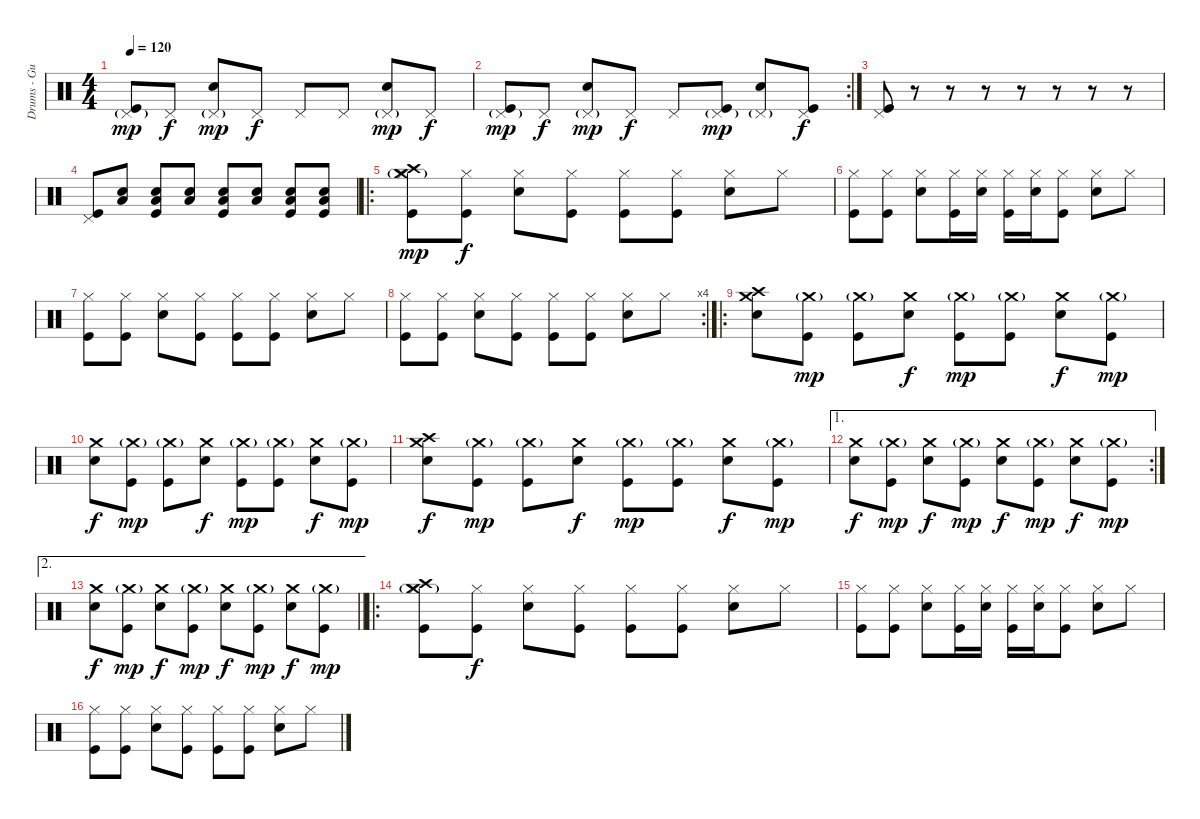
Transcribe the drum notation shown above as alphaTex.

\track ("Drums - Gustav" "Drums - Gu") {instrument percussion}
\staff {score}
\articulation defaults
\ts (4 4)
\tempo 120
\clef neutral
\ks c
("Kick (hit)" "Pedal Hi-Hat (hit)"{g}).8{dy mp} "Pedal Hi-Hat (hit)".8{dy f} ("Pedal Hi-Hat (hit)"{g} "Snare (hit) 2").8{dy mp} "Pedal Hi-Hat (hit)".8{dy f} "Pedal Hi-Hat (hit)".8 "Pedal Hi-Hat (hit)".8 ("Pedal Hi-Hat (hit)"{g} "Snare (hit) 2").8{dy mp} "Pedal Hi-Hat (hit)".8{dy f} |
\rc 2
("Kick (hit)" "Pedal Hi-Hat (hit)"{g}).8{dy mp} "Pedal Hi-Hat (hit)".8{dy f} ("Pedal Hi-Hat (hit)"{g} "Snare (hit) 2").8{dy mp} "Pedal Hi-Hat (hit)".8{dy f} "Pedal Hi-Hat (hit)".8 ("Kick (hit)" "Pedal Hi-Hat (hit)"{g}).8{dy mp} ("Pedal Hi-Hat (hit)"{g} "Snare (hit) 2").8 ("Kick (hit)" "Pedal Hi-Hat (hit)").8{dy f} |
("Kick (hit)" "Pedal Hi-Hat (hit)").8 r.8 r.8 r.8 r.8 r.8 r.8 r.8 |
("Kick (hit)" "Pedal Hi-Hat (hit)").8{volume 16} ("Snare (hit) 2" "Low Floor Tom (hit)").8 ("Kick (hit)" "Snare (hit) 2" "Low Floor Tom (hit)").8 ("Snare (hit) 2" "Low Floor Tom (hit)").8 ("Kick (hit)" "Snare (hit) 2" "Low Floor Tom (hit)").8 ("Snare (hit) 2" "Low Floor Tom (hit)").8 ("Kick (hit)" "Snare (hit) 2" "Low Floor Tom (hit)").8 ("Kick (hit)" "Snare (hit) 2" "Low Floor Tom (hit)").8 |
\ro
("Kick (hit)" "Hi-Hat (closed)"{g} "Crash high (hit)" "Crash medium (hit)").8{dy mp} ("Kick (hit)" "Hi-Hat (closed)").8{dy f} ("Hi-Hat (closed)" "Snare (hit) 2").8 ("Kick (hit)" "Hi-Hat (closed)").8 ("Kick (hit)" "Hi-Hat (closed)").8 ("Kick (hit)" "Hi-Hat (closed)").8 ("Hi-Hat (closed)" "Snare (hit) 2").8 "Hi-Hat (closed)".8 |
("Kick (hit)" "Hi-Hat (closed)").8 ("Kick (hit)" "Hi-Hat (closed)").8 ("Hi-Hat (closed)" "Snare (hit) 2").8 ("Kick (hit)" "Hi-Hat (closed)").16 ("Hi-Hat (closed)" "Snare (hit) 2").16 ("Kick (hit)" "Hi-Hat (closed)").16 ("Hi-Hat (closed)" "Snare (hit) 2").16 ("Kick (hit)" "Hi-Hat (closed)").8 ("Hi-Hat (closed)" "Snare (hit) 2").8 "Hi-Hat (closed)".8 |
("Kick (hit)" "Hi-Hat (closed)").8 ("Kick (hit)" "Hi-Hat (closed)").8 ("Hi-Hat (closed)" "Snare (hit) 2").8 ("Kick (hit)" "Hi-Hat (closed)").8 ("Kick (hit)" "Hi-Hat (closed)").8 ("Kick (hit)" "Hi-Hat (closed)").8 ("Hi-Hat (closed)" "Snare (hit) 2").8 "Hi-Hat (closed)".8 |
\rc 4
("Kick (hit)" "Hi-Hat (closed)").8 ("Kick (hit)" "Hi-Hat (closed)").8 ("Hi-Hat (closed)" "Snare (hit) 2").8 ("Kick (hit)" "Hi-Hat (closed)").8 ("Kick (hit)" "Hi-Hat (closed)").8 ("Kick (hit)" "Hi-Hat (closed)").8 ("Hi-Hat (closed)" "Snare (hit) 2").8 "Hi-Hat (closed)".8 |
\ro
("Snare (hit) 2" "Crash high (hit)" "Crash medium (hit)").8 ("Kick (hit)" "Crash medium (hit)"{g}).8{dy mp} ("Kick (hit)" "Crash medium (hit)"{g}).8 ("Snare (hit) 2" "Crash medium (hit)").8{dy f} ("Kick (hit)" "Crash medium (hit)"{g}).8{dy mp} ("Kick (hit)" "Crash medium (hit)"{g}).8 ("Snare (hit) 2" "Crash medium (hit)").8{dy f} ("Kick (hit)" "Crash medium (hit)"{g}).8{dy mp} |
("Snare (hit) 2" "Crash medium (hit)").8{dy f} ("Kick (hit)" "Crash medium (hit)"{g}).8{dy mp} ("Kick (hit)" "Crash medium (hit)"{g}).8 ("Snare (hit) 2" "Crash medium (hit)").8{dy f} ("Kick (hit)" "Crash medium (hit)"{g}).8{dy mp} ("Kick (hit)" "Crash medium (hit)"{g}).8 ("Snare (hit) 2" "Crash medium (hit)").8{dy f} ("Kick (hit)" "Crash medium (hit)"{g}).8{dy mp} |
("Snare (hit) 2" "Crash high (hit)" "Crash medium (hit)").8{dy f} ("Kick (hit)" "Crash medium (hit)"{g}).8{dy mp} ("Kick (hit)" "Crash medium (hit)"{g}).8 ("Snare (hit) 2" "Crash medium (hit)").8{dy f} ("Kick (hit)" "Crash medium (hit)"{g}).8{dy mp} ("Kick (hit)" "Crash medium (hit)"{g}).8 ("Snare (hit) 2" "Crash medium (hit)").8{dy f} ("Kick (hit)" "Crash medium (hit)"{g}).8{dy mp} |
\ae 1
\rc 2
("Snare (hit) 2" "Crash medium (hit)").8{dy f} ("Kick (hit)" "Crash medium (hit)"{g}).8{dy mp} ("Snare (hit) 2" "Crash medium (hit)").8{dy f} ("Kick (hit)" "Crash medium (hit)"{g}).8{dy mp} ("Snare (hit) 2" "Crash medium (hit)").8{dy f} ("Kick (hit)" "Crash medium (hit)"{g}).8{dy mp} ("Snare (hit) 2" "Crash medium (hit)").8{dy f} ("Kick (hit)" "Crash medium (hit)"{g}).8{dy mp} |
\ae 2
\barLineRight lightlight
("Snare (hit) 2" "Crash medium (hit)").8{dy f} ("Kick (hit)" "Crash medium (hit)"{g}).8{dy mp} ("Snare (hit) 2" "Crash medium (hit)").8{dy f} ("Kick (hit)" "Crash medium (hit)"{g}).8{dy mp} ("Snare (hit) 2" "Crash medium (hit)").8{dy f} ("Kick (hit)" "Crash medium (hit)"{g}).8{dy mp} ("Snare (hit) 2" "Crash medium (hit)").8{dy f} ("Kick (hit)" "Crash medium (hit)"{g}).8{dy mp} |
\ro
("Kick (hit)" "Hi-Hat (closed)"{g} "Crash high (hit)" "Crash medium (hit)").8 ("Kick (hit)" "Hi-Hat (closed)").8{dy f} ("Hi-Hat (closed)" "Snare (hit) 2").8 ("Kick (hit)" "Hi-Hat (closed)").8 ("Kick (hit)" "Hi-Hat (closed)").8 ("Kick (hit)" "Hi-Hat (closed)").8 ("Hi-Hat (closed)" "Snare (hit) 2").8 "Hi-Hat (closed)".8 |
("Kick (hit)" "Hi-Hat (closed)").8 ("Kick (hit)" "Hi-Hat (closed)").8 ("Hi-Hat (closed)" "Snare (hit) 2").8 ("Kick (hit)" "Hi-Hat (closed)").16 ("Hi-Hat (closed)" "Snare (hit) 2").16 ("Kick (hit)" "Hi-Hat (closed)").16 ("Hi-Hat (closed)" "Snare (hit) 2").16 ("Kick (hit)" "Hi-Hat (closed)").8 ("Hi-Hat (closed)" "Snare (hit) 2").8 "Hi-Hat (closed)".8 |
("Kick (hit)" "Hi-Hat (closed)").8 ("Kick (hit)" "Hi-Hat (closed)").8 ("Hi-Hat (closed)" "Snare (hit) 2").8 ("Kick (hit)" "Hi-Hat (closed)").8 ("Kick (hit)" "Hi-Hat (closed)").8 ("Kick (hit)" "Hi-Hat (closed)").8 ("Hi-Hat (closed)" "Snare (hit) 2").8 "Hi-Hat (closed)".8
